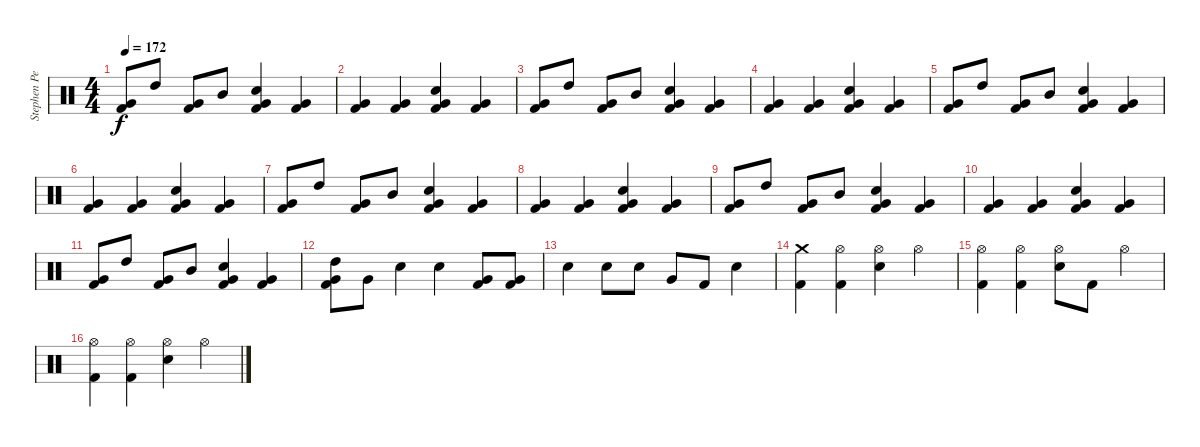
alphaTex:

\track ("Stephen Perkins" "Stephen Pe") {instrument percussion}
\staff {score}
\articulation defaults
\ts (4 4)
\tempo 172
\clef neutral
\ks c
("Very Low Tom (hit)" "Kick (hit) 2").8{dy f} "High Tom (hit)".8 ("Very Low Tom (hit)" "Kick (hit) 2").8 "Mid Tom (hit)".8 ("Snare (hit) 2" "Very Low Tom (hit)" "Kick (hit) 2").4 ("Very Low Tom (hit)" "Kick (hit) 2").4 |
("Very Low Tom (hit)" "Kick (hit) 2").4 ("Very Low Tom (hit)" "Kick (hit) 2").4 ("Snare (hit) 2" "Very Low Tom (hit)" "Kick (hit) 2").4 ("Very Low Tom (hit)" "Kick (hit) 2").4 |
("Very Low Tom (hit)" "Kick (hit) 2").8 "High Tom (hit)".8 ("Very Low Tom (hit)" "Kick (hit) 2").8 "Mid Tom (hit)".8 ("Snare (hit) 2" "Very Low Tom (hit)" "Kick (hit) 2").4 ("Very Low Tom (hit)" "Kick (hit) 2").4 |
("Very Low Tom (hit)" "Kick (hit) 2").4 ("Very Low Tom (hit)" "Kick (hit) 2").4 ("Snare (hit) 2" "Very Low Tom (hit)" "Kick (hit) 2").4 ("Very Low Tom (hit)" "Kick (hit) 2").4 |
("Very Low Tom (hit)" "Kick (hit) 2").8 "High Tom (hit)".8 ("Very Low Tom (hit)" "Kick (hit) 2").8 "Mid Tom (hit)".8 ("Snare (hit) 2" "Very Low Tom (hit)" "Kick (hit) 2").4 ("Very Low Tom (hit)" "Kick (hit) 2").4 |
("Very Low Tom (hit)" "Kick (hit) 2").4 ("Very Low Tom (hit)" "Kick (hit) 2").4 ("Snare (hit) 2" "Very Low Tom (hit)" "Kick (hit) 2").4 ("Very Low Tom (hit)" "Kick (hit) 2").4 |
("Very Low Tom (hit)" "Kick (hit) 2").8 "High Tom (hit)".8 ("Very Low Tom (hit)" "Kick (hit) 2").8 "Mid Tom (hit)".8 ("Snare (hit) 2" "Very Low Tom (hit)" "Kick (hit) 2").4 ("Very Low Tom (hit)" "Kick (hit) 2").4 |
("Very Low Tom (hit)" "Kick (hit) 2").4 ("Very Low Tom (hit)" "Kick (hit) 2").4 ("Snare (hit) 2" "Very Low Tom (hit)" "Kick (hit) 2").4 ("Very Low Tom (hit)" "Kick (hit) 2").4 |
("Very Low Tom (hit)" "Kick (hit) 2").8 "High Tom (hit)".8 ("Very Low Tom (hit)" "Kick (hit) 2").8 "Mid Tom (hit)".8 ("Snare (hit) 2" "Very Low Tom (hit)" "Kick (hit) 2").4 ("Very Low Tom (hit)" "Kick (hit) 2").4 |
("Very Low Tom (hit)" "Kick (hit) 2").4 ("Very Low Tom (hit)" "Kick (hit) 2").4 ("Snare (hit) 2" "Very Low Tom (hit)" "Kick (hit) 2").4 ("Very Low Tom (hit)" "Kick (hit) 2").4 |
("Very Low Tom (hit)" "Kick (hit) 2").8 "High Tom (hit)".8 ("Very Low Tom (hit)" "Kick (hit) 2").8 "Mid Tom (hit)".8 ("Snare (hit) 2" "Very Low Tom (hit)" "Kick (hit) 2").4 ("Very Low Tom (hit)" "Kick (hit) 2").4 |
("High Tom (hit)" "Very Low Tom (hit)" "Kick (hit) 2").8 "Very Low Tom (hit)".8 "Snare (hit) 2".4 "Snare (hit) 2".4 ("Very Low Tom (hit)" "Kick (hit) 2").8 ("Very Low Tom (hit)" "Kick (hit) 2").8 |
"Snare (hit) 2".4 "Snare (hit) 2".8 "Snare (hit) 2".8 "Very Low Tom (hit)".8 "Kick (hit) 2".8 "Snare (hit) 2".4 |
("Crash medium (hit)" "Kick (hit) 2").4 ("Hi-Hat (open)" "Kick (hit) 2").4 ("Hi-Hat (open)" "Snare (hit) 2").4 "Hi-Hat (open)".4 |
("Hi-Hat (open)" "Kick (hit) 2").4 ("Hi-Hat (open)" "Kick (hit) 2").4 ("Hi-Hat (open)" "Snare (hit) 2").8 "Kick (hit) 2".8 "Hi-Hat (open)".4 |
("Hi-Hat (open)" "Kick (hit) 2").4 ("Hi-Hat (open)" "Kick (hit) 2").4 ("Hi-Hat (open)" "Snare (hit) 2").4 "Hi-Hat (open)".4
